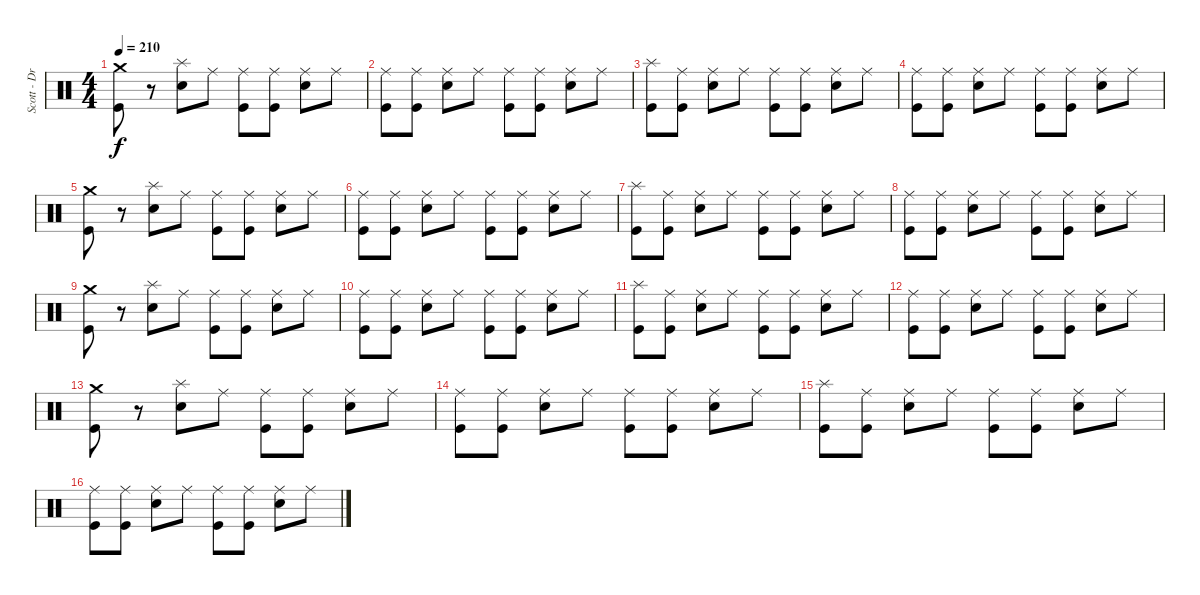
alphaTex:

\track ("Scott - Drums" "Scott - Dr") {instrument percussion}
\staff {score}
\articulation defaults
\ts (4 4)
\tempo 210
\clef neutral
\ks c
("Crash medium (hit)" "Kick (hit)").8{dy f} r.8 ("Splash (hit)" "Electric Snare (hit)").8 "Ride (middle)".8 ("Ride (middle)" "Kick (hit)").8 ("Ride (middle)" "Kick (hit)").8 ("Ride (middle)" "Electric Snare (hit)").8 "Ride (middle)".8 |
("Ride (middle)" "Kick (hit)").8 ("Ride (middle)" "Kick (hit)").8 ("Ride (middle)" "Electric Snare (hit)").8 "Ride (middle)".8 ("Ride (middle)" "Kick (hit)").8 ("Ride (middle)" "Kick (hit)").8 ("Ride (middle)" "Electric Snare (hit)").8 "Ride (middle)".8 |
("Splash (hit)" "Kick (hit)").8 ("Ride (middle)" "Kick (hit)").8 ("Ride (middle)" "Electric Snare (hit)").8 "Ride (middle)".8 ("Ride (middle)" "Kick (hit)").8 ("Ride (middle)" "Kick (hit)").8 ("Ride (middle)" "Electric Snare (hit)").8 "Ride (middle)".8 |
("Ride (middle)" "Kick (hit)").8 ("Ride (middle)" "Kick (hit)").8 ("Ride (middle)" "Electric Snare (hit)").8 "Ride (middle)".8 ("Ride (middle)" "Kick (hit)").8 ("Ride (middle)" "Kick (hit)").8 ("Ride (middle)" "Electric Snare (hit)").8 "Ride (middle)".8 |
("Crash medium (hit)" "Kick (hit)").8 r.8 ("Splash (hit)" "Electric Snare (hit)").8 "Ride (middle)".8 ("Ride (middle)" "Kick (hit)").8 ("Ride (middle)" "Kick (hit)").8 ("Ride (middle)" "Electric Snare (hit)").8 "Ride (middle)".8 |
("Ride (middle)" "Kick (hit)").8 ("Ride (middle)" "Kick (hit)").8 ("Ride (middle)" "Electric Snare (hit)").8 "Ride (middle)".8 ("Ride (middle)" "Kick (hit)").8 ("Ride (middle)" "Kick (hit)").8 ("Ride (middle)" "Electric Snare (hit)").8 "Ride (middle)".8 |
("Splash (hit)" "Kick (hit)").8 ("Ride (middle)" "Kick (hit)").8 ("Ride (middle)" "Electric Snare (hit)").8 "Ride (middle)".8 ("Ride (middle)" "Kick (hit)").8 ("Ride (middle)" "Kick (hit)").8 ("Ride (middle)" "Electric Snare (hit)").8 "Ride (middle)".8 |
("Ride (middle)" "Kick (hit)").8 ("Ride (middle)" "Kick (hit)").8 ("Ride (middle)" "Electric Snare (hit)").8 "Ride (middle)".8 ("Ride (middle)" "Kick (hit)").8 ("Ride (middle)" "Kick (hit)").8 ("Ride (middle)" "Electric Snare (hit)").8 "Ride (middle)".8 |
("Crash medium (hit)" "Kick (hit)").8 r.8 ("Splash (hit)" "Electric Snare (hit)").8 "Ride (middle)".8 ("Ride (middle)" "Kick (hit)").8 ("Ride (middle)" "Kick (hit)").8 ("Ride (middle)" "Electric Snare (hit)").8 "Ride (middle)".8 |
("Ride (middle)" "Kick (hit)").8 ("Ride (middle)" "Kick (hit)").8 ("Ride (middle)" "Electric Snare (hit)").8 "Ride (middle)".8 ("Ride (middle)" "Kick (hit)").8 ("Ride (middle)" "Kick (hit)").8 ("Ride (middle)" "Electric Snare (hit)").8 "Ride (middle)".8 |
("Splash (hit)" "Kick (hit)").8 ("Ride (middle)" "Kick (hit)").8 ("Ride (middle)" "Electric Snare (hit)").8 "Ride (middle)".8 ("Ride (middle)" "Kick (hit)").8 ("Ride (middle)" "Kick (hit)").8 ("Ride (middle)" "Electric Snare (hit)").8 "Ride (middle)".8 |
("Ride (middle)" "Kick (hit)").8 ("Ride (middle)" "Kick (hit)").8 ("Ride (middle)" "Electric Snare (hit)").8 "Ride (middle)".8 ("Ride (middle)" "Kick (hit)").8 ("Ride (middle)" "Kick (hit)").8 ("Ride (middle)" "Electric Snare (hit)").8 "Ride (middle)".8 |
("Crash medium (hit)" "Kick (hit)").8 r.8 ("Splash (hit)" "Electric Snare (hit)").8 "Ride (middle)".8 ("Ride (middle)" "Kick (hit)").8 ("Ride (middle)" "Kick (hit)").8 ("Ride (middle)" "Electric Snare (hit)").8 "Ride (middle)".8 |
("Ride (middle)" "Kick (hit)").8 ("Ride (middle)" "Kick (hit)").8 ("Ride (middle)" "Electric Snare (hit)").8 "Ride (middle)".8 ("Ride (middle)" "Kick (hit)").8 ("Ride (middle)" "Kick (hit)").8 ("Ride (middle)" "Electric Snare (hit)").8 "Ride (middle)".8 |
("Splash (hit)" "Kick (hit)").8 ("Ride (middle)" "Kick (hit)").8 ("Ride (middle)" "Electric Snare (hit)").8 "Ride (middle)".8 ("Ride (middle)" "Kick (hit)").8 ("Ride (middle)" "Kick (hit)").8 ("Ride (middle)" "Electric Snare (hit)").8 "Ride (middle)".8 |
("Ride (middle)" "Kick (hit)").8 ("Ride (middle)" "Kick (hit)").8 ("Ride (middle)" "Electric Snare (hit)").8 "Ride (middle)".8 ("Ride (middle)" "Kick (hit)").8 ("Ride (middle)" "Kick (hit)").8 ("Ride (middle)" "Electric Snare (hit)").8 "Ride (middle)".8
